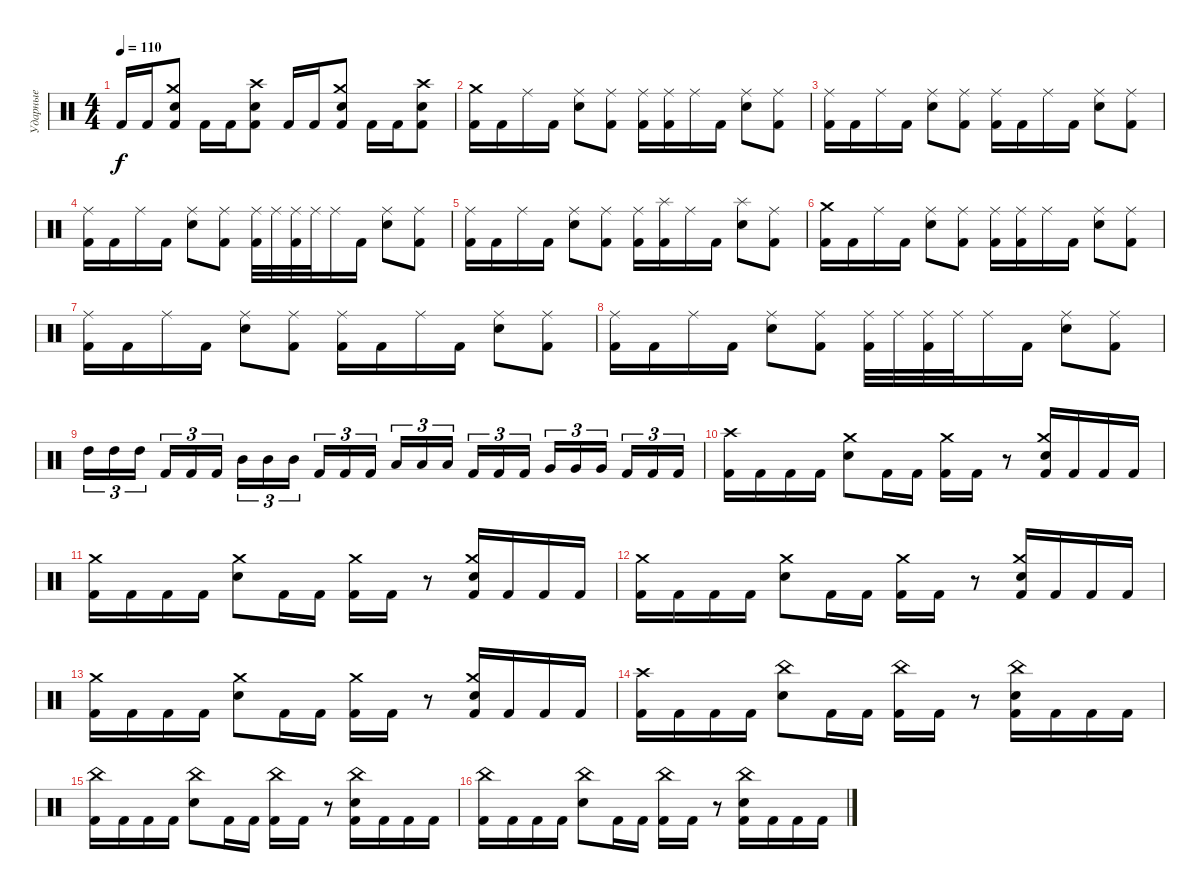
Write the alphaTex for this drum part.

\track ("Ударные" "Ударные") {instrument percussion}
\staff {score}
\articulation defaults
\ts (4 4)
\tempo 110
\clef neutral
\ks c "Kick (hit) 2".16{dy f} "Kick (hit) 2".16
("Crash medium (hit)" "Electric Snare (hit)" "Kick (hit) 2").8 "Kick (hit) 2".16 "Kick (hit) 2".16 ("Crash high (hit)" "Electric Snare (hit)" "Kick (hit) 2").8 "Kick (hit) 2".16 "Kick (hit) 2".16 ("Crash medium (hit)" "Electric Snare (hit)" "Kick (hit) 2").8 "Kick (hit) 2".16 "Kick (hit) 2".16 ("Crash high (hit)" "Electric Snare (hit)" "Kick (hit) 2").8 |
("Crash medium (hit)" "Kick (hit) 2").16 "Kick (hit) 2".16 "Ride (middle)".16 "Kick (hit) 2".16 ("Ride (middle)" "Electric Snare (hit)").8 ("Ride (middle)" "Kick (hit) 2").8 ("Ride (middle)" "Kick (hit) 2").16 ("Ride (middle)" "Kick (hit) 2").16 "Ride (middle)".16 "Kick (hit) 2".16 ("Ride (middle)" "Electric Snare (hit)").8 ("Ride (middle)" "Kick (hit) 2").8 |
("Ride (middle)" "Kick (hit) 2").16 "Kick (hit) 2".16 "Ride (middle)".16 "Kick (hit) 2".16 ("Ride (middle)" "Electric Snare (hit)").8 ("Ride (middle)" "Kick (hit) 2").8 ("Ride (middle)" "Kick (hit) 2").16 "Kick (hit) 2".16 "Ride (middle)".16 "Kick (hit) 2".16 ("Ride (middle)" "Electric Snare (hit)").8 ("Ride (middle)" "Kick (hit) 2").8 |
("Ride (middle)" "Kick (hit) 2").16 "Kick (hit) 2".16 "Ride (middle)".16 "Kick (hit) 2".16 ("Ride (middle)" "Electric Snare (hit)").8 ("Ride (middle)" "Kick (hit) 2").8 ("Ride (middle)" "Kick (hit) 2").32 "Ride (middle)".32 ("Ride (middle)" "Kick (hit) 2").32 "Ride (middle)".32 "Ride (middle)".16 "Kick (hit) 2".16 ("Ride (middle)" "Electric Snare (hit)").8 ("Ride (middle)" "Kick (hit) 2").8 |
("Ride (middle)" "Kick (hit) 2").16 "Kick (hit) 2".16 "Ride (middle)".16 "Kick (hit) 2".16 ("Ride (middle)" "Electric Snare (hit)").8 ("Ride (middle)" "Kick (hit) 2").8 ("Ride (middle)" "Kick (hit) 2").16 ("Splash (hit)" "Kick (hit) 2").16 "Ride (middle)".16 "Kick (hit) 2".16 ("Splash (hit)" "Electric Snare (hit)").8 ("Ride (middle)" "Kick (hit) 2").8 |
("Crash medium (hit)" "Kick (hit) 2").16 "Kick (hit) 2".16 "Ride (middle)".16 "Kick (hit) 2".16 ("Ride (middle)" "Electric Snare (hit)").8 ("Ride (middle)" "Kick (hit) 2").8 ("Ride (middle)" "Kick (hit) 2").16 ("Ride (middle)" "Kick (hit) 2").16 "Ride (middle)".16 "Kick (hit) 2".16 ("Ride (middle)" "Electric Snare (hit)").8 ("Ride (middle)" "Kick (hit) 2").8 |
("Ride (middle)" "Kick (hit) 2").16 "Kick (hit) 2".16 "Ride (middle)".16 "Kick (hit) 2".16 ("Ride (middle)" "Electric Snare (hit)").8 ("Ride (middle)" "Kick (hit) 2").8 ("Ride (middle)" "Kick (hit) 2").16 "Kick (hit) 2".16 "Ride (middle)".16 "Kick (hit) 2".16 ("Ride (middle)" "Electric Snare (hit)").8 ("Ride (middle)" "Kick (hit) 2").8 |
("Ride (middle)" "Kick (hit) 2").16 "Kick (hit) 2".16 "Ride (middle)".16 "Kick (hit) 2".16 ("Ride (middle)" "Electric Snare (hit)").8 ("Ride (middle)" "Kick (hit) 2").8 ("Ride (middle)" "Kick (hit) 2").32 "Ride (middle)".32 ("Ride (middle)" "Kick (hit) 2").32 "Ride (middle)".32 "Ride (middle)".16 "Kick (hit) 2".16 ("Ride (middle)" "Electric Snare (hit)").8 ("Ride (middle)" "Kick (hit) 2").8 |
"High Tom (hit)".16{tu (3 2)} "High Tom (hit)".16{tu (3 2)} "High Tom (hit)".16{tu (3 2) beam splitsecondary} "Kick (hit) 2".16{tu (3 2)} "Kick (hit) 2".16{tu (3 2)} "Kick (hit) 2".16{tu (3 2)} "Mid Tom (hit)".16{tu (3 2)} "Mid Tom (hit)".16{tu (3 2)} "Mid Tom (hit)".16{tu (3 2) beam splitsecondary} "Kick (hit) 2".16{tu (3 2)} "Kick (hit) 2".16{tu (3 2)} "Kick (hit) 2".16{tu (3 2)} "Low Tom (hit)".16{tu (3 2)} "Low Tom (hit)".16{tu (3 2)} "Low Tom (hit)".16{tu (3 2) beam splitsecondary} "Kick (hit) 2".16{tu (3 2)} "Kick (hit) 2".16{tu (3 2)} "Kick (hit) 2".16{tu (3 2)} "Very Low Tom (hit)".16{tu (3 2)} "Very Low Tom (hit)".16{tu (3 2)} "Very Low Tom (hit)".16{tu (3 2) beam splitsecondary} "Kick (hit) 2".16{tu (3 2)} "Kick (hit) 2".16{tu (3 2)} "Kick (hit) 2".16{tu (3 2)} |
("Crash high (hit)" "Kick (hit) 2").16 "Kick (hit) 2".16 "Kick (hit) 2".16 "Kick (hit) 2".16 ("Crash medium (hit)" "Electric Snare (hit)").8 "Kick (hit) 2".16 "Kick (hit) 2".16 ("Crash medium (hit)" "Kick (hit) 2").16 "Kick (hit) 2".16 r.8 ("Crash medium (hit)" "Electric Snare (hit)" "Kick (hit) 2").16 "Kick (hit) 2".16 "Kick (hit) 2".16 "Kick (hit) 2".16 |
("Crash medium (hit)" "Kick (hit) 2").16 "Kick (hit) 2".16 "Kick (hit) 2".16 "Kick (hit) 2".16 ("Crash medium (hit)" "Electric Snare (hit)").8 "Kick (hit) 2".16 "Kick (hit) 2".16 ("Crash medium (hit)" "Kick (hit) 2").16 "Kick (hit) 2".16 r.8 ("Crash medium (hit)" "Electric Snare (hit)" "Kick (hit) 2").16 "Kick (hit) 2".16 "Kick (hit) 2".16 "Kick (hit) 2".16 |
("Crash medium (hit)" "Kick (hit) 2").16 "Kick (hit) 2".16 "Kick (hit) 2".16 "Kick (hit) 2".16 ("Crash medium (hit)" "Electric Snare (hit)").8 "Kick (hit) 2".16 "Kick (hit) 2".16 ("Crash medium (hit)" "Kick (hit) 2").16 "Kick (hit) 2".16 r.8 ("Crash medium (hit)" "Electric Snare (hit)" "Kick (hit) 2").16 "Kick (hit) 2".16 "Kick (hit) 2".16 "Kick (hit) 2".16 |
("Crash medium (hit)" "Kick (hit) 2").16 "Kick (hit) 2".16 "Kick (hit) 2".16 "Kick (hit) 2".16 ("Crash medium (hit)" "Electric Snare (hit)").8 "Kick (hit) 2".16 "Kick (hit) 2".16 ("Crash medium (hit)" "Kick (hit) 2").16 "Kick (hit) 2".16 r.8 ("Crash medium (hit)" "Electric Snare (hit)" "Kick (hit) 2").16 "Kick (hit) 2".16 "Kick (hit) 2".16 "Kick (hit) 2".16 |
("Crash high (hit)" "Kick (hit) 2").16 "Kick (hit) 2".16 "Kick (hit) 2".16 "Kick (hit) 2".16 ("China (hit)" "Electric Snare (hit)").8 "Kick (hit) 2".16 "Kick (hit) 2".16 ("China (hit)" "Kick (hit) 2").16 "Kick (hit) 2".16 r.8 ("China (hit)" "Electric Snare (hit)" "Kick (hit) 2").16 "Kick (hit) 2".16 "Kick (hit) 2".16 "Kick (hit) 2".16 |
("China (hit)" "Kick (hit) 2").16 "Kick (hit) 2".16 "Kick (hit) 2".16 "Kick (hit) 2".16 ("China (hit)" "Electric Snare (hit)").8 "Kick (hit) 2".16 "Kick (hit) 2".16 ("China (hit)" "Kick (hit) 2").16 "Kick (hit) 2".16 r.8 ("China (hit)" "Electric Snare (hit)" "Kick (hit) 2").16 "Kick (hit) 2".16 "Kick (hit) 2".16 "Kick (hit) 2".16 |
("China (hit)" "Kick (hit) 2").16 "Kick (hit) 2".16 "Kick (hit) 2".16 "Kick (hit) 2".16 ("China (hit)" "Electric Snare (hit)").8 "Kick (hit) 2".16 "Kick (hit) 2".16 ("China (hit)" "Kick (hit) 2").16 "Kick (hit) 2".16 r.8 ("China (hit)" "Electric Snare (hit)" "Kick (hit) 2").16 "Kick (hit) 2".16 "Kick (hit) 2".16 "Kick (hit) 2".16
